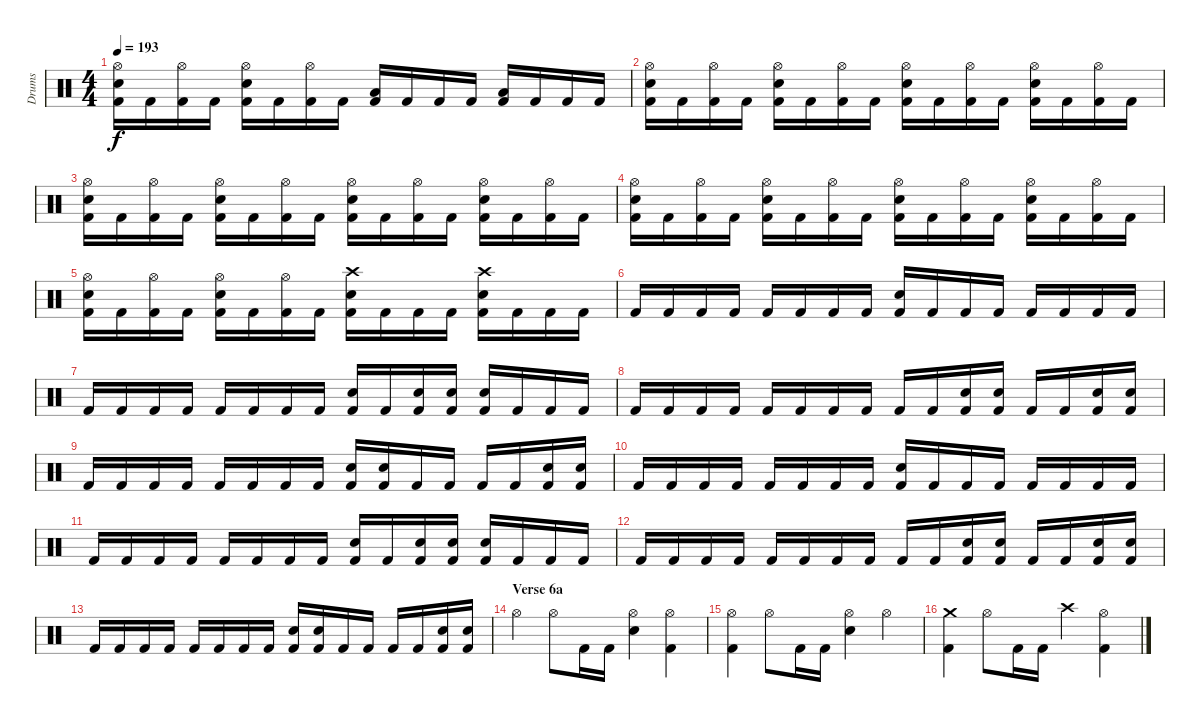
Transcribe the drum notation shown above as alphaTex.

\track ("Drums" "Drums") {instrument percussion}
\staff {score}
\articulation defaults
\ts (4 4)
\tempo 193
\clef neutral
\ks c
("Hi-Hat (open)" "Snare (hit) 2" "Kick (hit) 2").16{dy f} "Kick (hit) 2".16 ("Hi-Hat (open)" "Kick (hit) 2").16 "Kick (hit) 2".16 ("Hi-Hat (open)" "Snare (hit) 2" "Kick (hit) 2").16 "Kick (hit) 2".16 ("Hi-Hat (open)" "Kick (hit) 2").16 "Kick (hit) 2".16 ("Low Tom (hit)" "Kick (hit) 2").16 "Kick (hit) 2".16 "Kick (hit) 2".16 "Kick (hit) 2".16 ("Low Tom (hit)" "Kick (hit) 2").16 "Kick (hit) 2".16 "Kick (hit) 2".16 "Kick (hit) 2".16 |
("Hi-Hat (open)" "Snare (hit) 2" "Kick (hit) 2").16 "Kick (hit) 2".16 ("Hi-Hat (open)" "Kick (hit) 2").16 "Kick (hit) 2".16 ("Hi-Hat (open)" "Snare (hit) 2" "Kick (hit) 2").16 "Kick (hit) 2".16 ("Hi-Hat (open)" "Kick (hit) 2").16 "Kick (hit) 2".16 ("Hi-Hat (open)" "Snare (hit) 2" "Kick (hit) 2").16 "Kick (hit) 2".16 ("Hi-Hat (open)" "Kick (hit) 2").16 "Kick (hit) 2".16 ("Hi-Hat (open)" "Snare (hit) 2" "Kick (hit) 2").16 "Kick (hit) 2".16 ("Hi-Hat (open)" "Kick (hit) 2").16 "Kick (hit) 2".16 |
("Hi-Hat (open)" "Snare (hit) 2" "Kick (hit) 2").16 "Kick (hit) 2".16 ("Hi-Hat (open)" "Kick (hit) 2").16 "Kick (hit) 2".16 ("Hi-Hat (open)" "Snare (hit) 2" "Kick (hit) 2").16 "Kick (hit) 2".16 ("Hi-Hat (open)" "Kick (hit) 2").16 "Kick (hit) 2".16 ("Hi-Hat (open)" "Snare (hit) 2" "Kick (hit) 2").16 "Kick (hit) 2".16 ("Hi-Hat (open)" "Kick (hit) 2").16 "Kick (hit) 2".16 ("Hi-Hat (open)" "Snare (hit) 2" "Kick (hit) 2").16 "Kick (hit) 2".16 ("Hi-Hat (open)" "Kick (hit) 2").16 "Kick (hit) 2".16 |
("Hi-Hat (open)" "Snare (hit) 2" "Kick (hit) 2").16 "Kick (hit) 2".16 ("Hi-Hat (open)" "Kick (hit) 2").16 "Kick (hit) 2".16 ("Hi-Hat (open)" "Snare (hit) 2" "Kick (hit) 2").16 "Kick (hit) 2".16 ("Hi-Hat (open)" "Kick (hit) 2").16 "Kick (hit) 2".16 ("Hi-Hat (open)" "Snare (hit) 2" "Kick (hit) 2").16 "Kick (hit) 2".16 ("Hi-Hat (open)" "Kick (hit) 2").16 "Kick (hit) 2".16 ("Hi-Hat (open)" "Snare (hit) 2" "Kick (hit) 2").16 "Kick (hit) 2".16 ("Hi-Hat (open)" "Kick (hit) 2").16 "Kick (hit) 2".16 |
("Hi-Hat (open)" "Snare (hit) 2" "Kick (hit) 2").16 "Kick (hit) 2".16 ("Hi-Hat (open)" "Kick (hit) 2").16 "Kick (hit) 2".16 ("Hi-Hat (open)" "Snare (hit) 2" "Kick (hit) 2").16 "Kick (hit) 2".16 ("Hi-Hat (open)" "Kick (hit) 2").16 "Kick (hit) 2".16 ("Crash high (hit)" "Snare (hit) 2" "Kick (hit) 2").16 "Kick (hit) 2".16 "Kick (hit) 2".16 "Kick (hit) 2".16 ("Crash high (hit)" "Snare (hit) 2" "Kick (hit) 2").16 "Kick (hit) 2".16 "Kick (hit) 2".16 "Kick (hit) 2".16 |
"Kick (hit) 2".16 "Kick (hit) 2".16 "Kick (hit) 2".16 "Kick (hit) 2".16 "Kick (hit) 2".16 "Kick (hit) 2".16 "Kick (hit) 2".16 "Kick (hit) 2".16 ("Snare (hit) 2" "Kick (hit) 2").16 "Kick (hit) 2".16 "Kick (hit) 2".16 "Kick (hit) 2".16 "Kick (hit) 2".16 "Kick (hit) 2".16 "Kick (hit) 2".16 "Kick (hit) 2".16 |
"Kick (hit) 2".16 "Kick (hit) 2".16 "Kick (hit) 2".16 "Kick (hit) 2".16 "Kick (hit) 2".16 "Kick (hit) 2".16 "Kick (hit) 2".16 "Kick (hit) 2".16 ("Snare (hit) 2" "Kick (hit) 2").16 "Kick (hit) 2".16 ("Snare (hit) 2" "Kick (hit) 2").16 ("Snare (hit) 2" "Kick (hit) 2").16 ("Snare (hit) 2" "Kick (hit) 2").16 "Kick (hit) 2".16 "Kick (hit) 2".16 "Kick (hit) 2".16 |
"Kick (hit) 2".16 "Kick (hit) 2".16 "Kick (hit) 2".16 "Kick (hit) 2".16 "Kick (hit) 2".16 "Kick (hit) 2".16 "Kick (hit) 2".16 "Kick (hit) 2".16 "Kick (hit) 2".16 "Kick (hit) 2".16 ("Snare (hit) 2" "Kick (hit) 2").16 ("Snare (hit) 2" "Kick (hit) 2").16 "Kick (hit) 2".16 "Kick (hit) 2".16 ("Snare (hit) 2" "Kick (hit) 2").16 ("Snare (hit) 2" "Kick (hit) 2").16 |
"Kick (hit) 2".16 "Kick (hit) 2".16 "Kick (hit) 2".16 "Kick (hit) 2".16 "Kick (hit) 2".16 "Kick (hit) 2".16 "Kick (hit) 2".16 "Kick (hit) 2".16 ("Snare (hit) 2" "Kick (hit) 2").16 ("Snare (hit) 2" "Kick (hit) 2").16 "Kick (hit) 2".16 "Kick (hit) 2".16 "Kick (hit) 2".16 "Kick (hit) 2".16 ("Snare (hit) 2" "Kick (hit) 2").16 ("Snare (hit) 2" "Kick (hit) 2").16 |
"Kick (hit) 2".16 "Kick (hit) 2".16 "Kick (hit) 2".16 "Kick (hit) 2".16 "Kick (hit) 2".16 "Kick (hit) 2".16 "Kick (hit) 2".16 "Kick (hit) 2".16 ("Snare (hit) 2" "Kick (hit) 2").16 "Kick (hit) 2".16 "Kick (hit) 2".16 "Kick (hit) 2".16 "Kick (hit) 2".16 "Kick (hit) 2".16 "Kick (hit) 2".16 "Kick (hit) 2".16 |
"Kick (hit) 2".16 "Kick (hit) 2".16 "Kick (hit) 2".16 "Kick (hit) 2".16 "Kick (hit) 2".16 "Kick (hit) 2".16 "Kick (hit) 2".16 "Kick (hit) 2".16 ("Snare (hit) 2" "Kick (hit) 2").16 "Kick (hit) 2".16 ("Snare (hit) 2" "Kick (hit) 2").16 ("Snare (hit) 2" "Kick (hit) 2").16 ("Snare (hit) 2" "Kick (hit) 2").16 "Kick (hit) 2".16 "Kick (hit) 2".16 "Kick (hit) 2".16 |
"Kick (hit) 2".16 "Kick (hit) 2".16 "Kick (hit) 2".16 "Kick (hit) 2".16 "Kick (hit) 2".16 "Kick (hit) 2".16 "Kick (hit) 2".16 "Kick (hit) 2".16 "Kick (hit) 2".16 "Kick (hit) 2".16 ("Snare (hit) 2" "Kick (hit) 2").16 ("Snare (hit) 2" "Kick (hit) 2").16 "Kick (hit) 2".16 "Kick (hit) 2".16 ("Snare (hit) 2" "Kick (hit) 2").16 ("Snare (hit) 2" "Kick (hit) 2").16 |
"Kick (hit) 2".16 "Kick (hit) 2".16 "Kick (hit) 2".16 "Kick (hit) 2".16 "Kick (hit) 2".16 "Kick (hit) 2".16 "Kick (hit) 2".16 "Kick (hit) 2".16 ("Snare (hit) 2" "Kick (hit) 2").16 ("Snare (hit) 2" "Kick (hit) 2").16 "Kick (hit) 2".16 "Kick (hit) 2".16 "Kick (hit) 2".16 "Kick (hit) 2".16 ("Snare (hit) 2" "Kick (hit) 2").16 ("Snare (hit) 2" "Kick (hit) 2").16 |
\section ("" "Verse 6a")
"Hi-Hat (open)".4 "Hi-Hat (open)".8 "Kick (hit) 2".16 "Kick (hit) 2".16 ("Hi-Hat (open)" "Snare (hit) 2").4 ("Hi-Hat (open)" "Kick (hit) 2").4 |
("Hi-Hat (open)" "Kick (hit) 2").4 "Hi-Hat (open)".8 "Kick (hit) 2".16 "Kick (hit) 2".16 ("Hi-Hat (open)" "Snare (hit) 2").4 "Hi-Hat (open)".4 |
("Crash medium (hit)" "Kick (hit) 2").4 "Hi-Hat (open)".8 "Kick (hit) 2".16 "Kick (hit) 2".16 "Crash high (hit)".4 ("Hi-Hat (open)" "Kick (hit) 2").4
